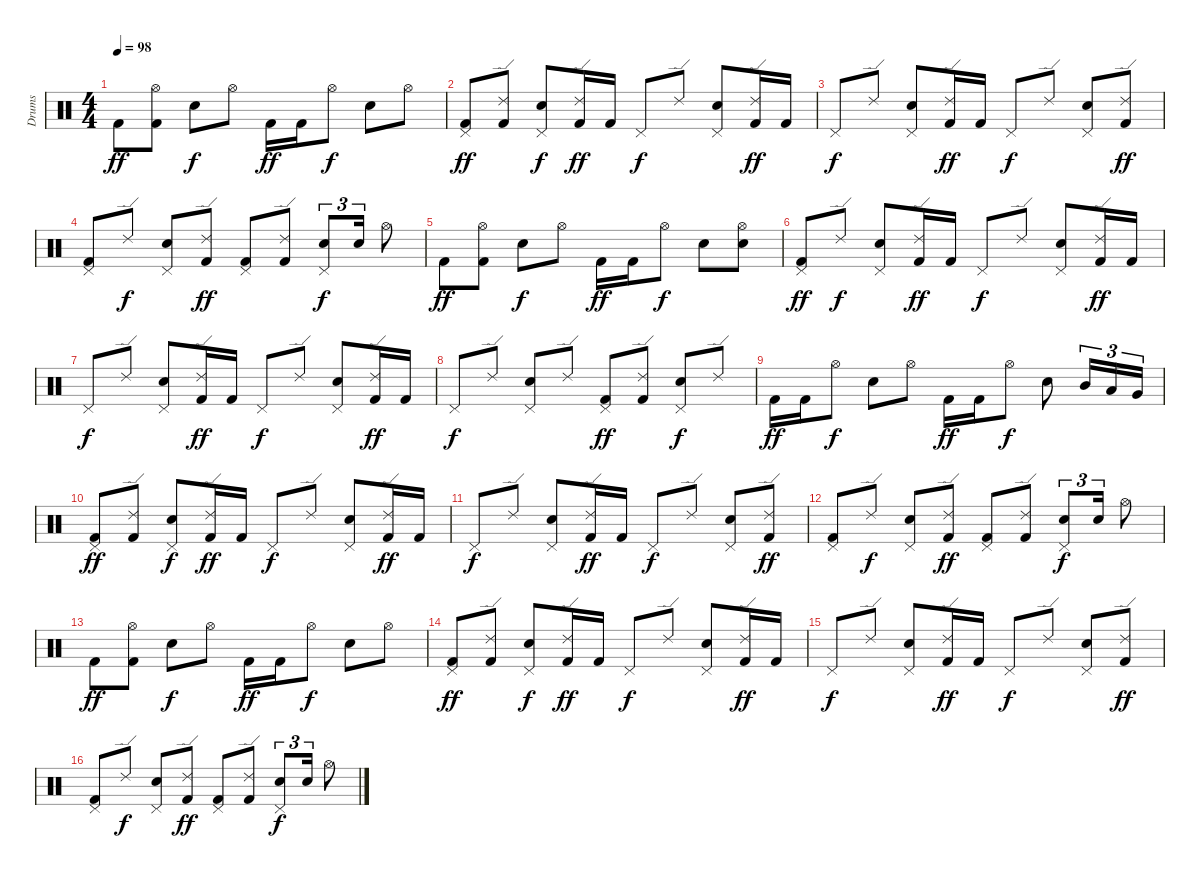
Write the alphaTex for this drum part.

\track ("Drums" "Drums") {instrument percussion}
\staff {score}
\articulation defaults
\ts (4 4)
\tempo 98
\clef neutral
\ks c "Kick (hit) 2".8{dy ff}
("Hi-Hat (open)" "Kick (hit) 2").8 "Snare (hit) 2".8{dy f} "Hi-Hat (open)".8 "Kick (hit) 2".16{dy ff} "Kick (hit) 2".16 "Hi-Hat (open)".8{dy f} "Snare (hit) 2".8 "Hi-Hat (open)".8 |
("Pedal Hi-Hat (hit)" "Kick (hit) 2").8{dy ff} ("Ride (edge) 2" "Kick (hit) 2").8 ("Pedal Hi-Hat (hit)" "Snare (hit) 2").8{dy f} ("Ride (edge) 2" "Kick (hit) 2").16{dy ff} "Kick (hit) 2".16 "Pedal Hi-Hat (hit)".8{dy f} "Ride (edge) 2".8 ("Pedal Hi-Hat (hit)" "Snare (hit) 2").8 ("Ride (edge) 2" "Kick (hit) 2").16{dy ff} "Kick (hit) 2".16 |
"Pedal Hi-Hat (hit)".8{dy f} "Ride (edge) 2".8 ("Pedal Hi-Hat (hit)" "Snare (hit) 2").8 ("Ride (edge) 2" "Kick (hit) 2").16{dy ff} "Kick (hit) 2".16 "Pedal Hi-Hat (hit)".8{dy f} "Ride (edge) 2".8 ("Pedal Hi-Hat (hit)" "Snare (hit) 2").8 ("Ride (edge) 2" "Kick (hit) 2").8{dy ff} |
("Pedal Hi-Hat (hit)" "Kick (hit) 2").8 "Ride (edge) 2".8{dy f} ("Pedal Hi-Hat (hit)" "Snare (hit) 2").8 ("Ride (edge) 2" "Kick (hit) 2").8{dy ff} ("Pedal Hi-Hat (hit)" "Kick (hit) 2").8 ("Ride (edge) 2" "Kick (hit) 2").8 ("Pedal Hi-Hat (hit)" "Snare (hit) 2").8{tu (3 2) dy f} "Snare (hit) 2".16{tu (3 2)} "Hi-Hat (open)".8 |
"Kick (hit) 2".8{dy ff} ("Hi-Hat (open)" "Kick (hit) 2").8 "Snare (hit) 2".8{dy f} "Hi-Hat (open)".8 "Kick (hit) 2".16{dy ff} "Kick (hit) 2".16 "Hi-Hat (open)".8{dy f} "Snare (hit) 2".8 ("Hi-Hat (open)" "Snare (hit) 2").8 |
("Pedal Hi-Hat (hit)" "Kick (hit) 2").8{dy ff} "Ride (edge) 2".8{dy f} ("Pedal Hi-Hat (hit)" "Snare (hit) 2").8 ("Ride (edge) 2" "Kick (hit) 2").16{dy ff} "Kick (hit) 2".16 "Pedal Hi-Hat (hit)".8{dy f} "Ride (edge) 2".8 ("Pedal Hi-Hat (hit)" "Snare (hit) 2").8 ("Ride (edge) 2" "Kick (hit) 2").16{dy ff} "Kick (hit) 2".16 |
"Pedal Hi-Hat (hit)".8{dy f} "Ride (edge) 2".8 ("Pedal Hi-Hat (hit)" "Snare (hit) 2").8 ("Ride (edge) 2" "Kick (hit) 2").16{dy ff} "Kick (hit) 2".16 "Pedal Hi-Hat (hit)".8{dy f} "Ride (edge) 2".8 ("Pedal Hi-Hat (hit)" "Snare (hit) 2").8 ("Ride (edge) 2" "Kick (hit) 2").16{dy ff} "Kick (hit) 2".16 |
"Pedal Hi-Hat (hit)".8{dy f} "Ride (edge) 2".8 ("Pedal Hi-Hat (hit)" "Snare (hit) 2").8 "Ride (edge) 2".8 ("Pedal Hi-Hat (hit)" "Kick (hit) 2").8{dy ff} ("Ride (edge) 2" "Kick (hit) 2").8 ("Pedal Hi-Hat (hit)" "Snare (hit) 2").8{dy f} "Ride (edge) 2".8 |
"Kick (hit) 2".16{dy ff} "Kick (hit) 2".16 "Hi-Hat (open)".8{dy f} "Snare (hit) 2".8 "Hi-Hat (open)".8 "Kick (hit) 2".16{dy ff} "Kick (hit) 2".16 "Hi-Hat (open)".8{dy f} "Snare (hit) 2".8 "Mid Tom (hit)".16{tu (3 2)} "Low Tom (hit)".16{tu (3 2)} "Very Low Tom (hit)".16{tu (3 2)} |
("Pedal Hi-Hat (hit)" "Kick (hit) 2").8{dy ff} ("Ride (edge) 2" "Kick (hit) 2").8 ("Pedal Hi-Hat (hit)" "Snare (hit) 2").8{dy f} ("Ride (edge) 2" "Kick (hit) 2").16{dy ff} "Kick (hit) 2".16 "Pedal Hi-Hat (hit)".8{dy f} "Ride (edge) 2".8 ("Pedal Hi-Hat (hit)" "Snare (hit) 2").8 ("Ride (edge) 2" "Kick (hit) 2").16{dy ff} "Kick (hit) 2".16 |
"Pedal Hi-Hat (hit)".8{dy f} "Ride (edge) 2".8 ("Pedal Hi-Hat (hit)" "Snare (hit) 2").8 ("Ride (edge) 2" "Kick (hit) 2").16{dy ff} "Kick (hit) 2".16 "Pedal Hi-Hat (hit)".8{dy f} "Ride (edge) 2".8 ("Pedal Hi-Hat (hit)" "Snare (hit) 2").8 ("Ride (edge) 2" "Kick (hit) 2").8{dy ff} |
("Pedal Hi-Hat (hit)" "Kick (hit) 2").8 "Ride (edge) 2".8{dy f} ("Pedal Hi-Hat (hit)" "Snare (hit) 2").8 ("Ride (edge) 2" "Kick (hit) 2").8{dy ff} ("Pedal Hi-Hat (hit)" "Kick (hit) 2").8 ("Ride (edge) 2" "Kick (hit) 2").8 ("Pedal Hi-Hat (hit)" "Snare (hit) 2").8{tu (3 2) dy f} "Snare (hit) 2".16{tu (3 2)} "Hi-Hat (open)".8 |
"Kick (hit) 2".8{dy ff} ("Hi-Hat (open)" "Kick (hit) 2").8 "Snare (hit) 2".8{dy f} "Hi-Hat (open)".8 "Kick (hit) 2".16{dy ff} "Kick (hit) 2".16 "Hi-Hat (open)".8{dy f} "Snare (hit) 2".8 "Hi-Hat (open)".8 |
("Pedal Hi-Hat (hit)" "Kick (hit) 2").8{dy ff} ("Ride (edge) 2" "Kick (hit) 2").8 ("Pedal Hi-Hat (hit)" "Snare (hit) 2").8{dy f} ("Ride (edge) 2" "Kick (hit) 2").16{dy ff} "Kick (hit) 2".16 "Pedal Hi-Hat (hit)".8{dy f} "Ride (edge) 2".8 ("Pedal Hi-Hat (hit)" "Snare (hit) 2").8 ("Ride (edge) 2" "Kick (hit) 2").16{dy ff} "Kick (hit) 2".16 |
"Pedal Hi-Hat (hit)".8{dy f} "Ride (edge) 2".8 ("Pedal Hi-Hat (hit)" "Snare (hit) 2").8 ("Ride (edge) 2" "Kick (hit) 2").16{dy ff} "Kick (hit) 2".16 "Pedal Hi-Hat (hit)".8{dy f} "Ride (edge) 2".8 ("Pedal Hi-Hat (hit)" "Snare (hit) 2").8 ("Ride (edge) 2" "Kick (hit) 2").8{dy ff} |
("Pedal Hi-Hat (hit)" "Kick (hit) 2").8 "Ride (edge) 2".8{dy f} ("Pedal Hi-Hat (hit)" "Snare (hit) 2").8 ("Ride (edge) 2" "Kick (hit) 2").8{dy ff} ("Pedal Hi-Hat (hit)" "Kick (hit) 2").8 ("Ride (edge) 2" "Kick (hit) 2").8 ("Pedal Hi-Hat (hit)" "Snare (hit) 2").8{tu (3 2) dy f} "Snare (hit) 2".16{tu (3 2)} "Hi-Hat (open)".8
